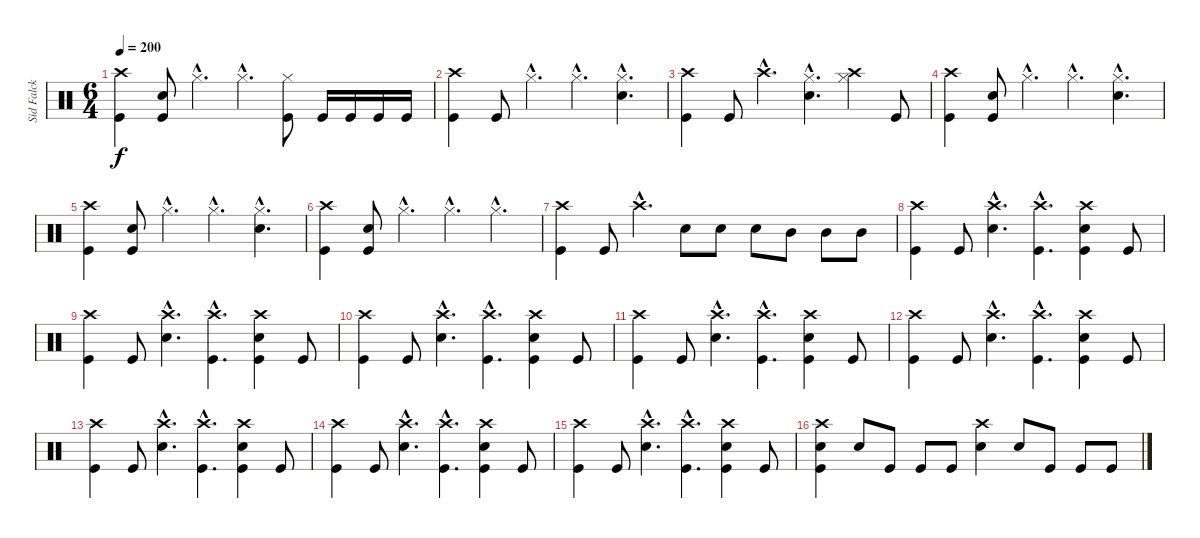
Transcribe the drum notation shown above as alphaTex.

\track ("Sid Falck - drums" "Sid Falck ") {instrument percussion}
\staff {score}
\articulation defaults
\ts (6 4)
\tempo 200
\clef neutral
\ks c
("Crash high (hit)" "Kick (hit)").4{dy f} ("Electric Snare (hit)" "Kick (hit)").8 "Hi-Hat (closed)"{hac}.4{d} "Hi-Hat (closed)"{hac}.4{d} ("Hi-Hat (closed)" "Kick (hit)").8 "Kick (hit)".16 "Kick (hit)".16 "Kick (hit)".16 "Kick (hit)".16 |
("Crash high (hit)" "Kick (hit)").4 "Kick (hit)".8 "Hi-Hat (closed)"{hac}.4{d} "Hi-Hat (closed)"{hac}.4{d} ("Hi-Hat (closed)"{hac} "Electric Snare (hit)"{hac}).4{d} |
("Crash high (hit)" "Kick (hit)").4 "Kick (hit)".8 "Crash high (hit)"{hac}.4{d} ("Hi-Hat (closed)"{hac} "Electric Snare (hit)"{hac}).4{d} ("Crash high (hit)" "Hi-Hat (closed)").4 "Kick (hit)".8 |
("Crash high (hit)" "Kick (hit)").4 ("Electric Snare (hit)" "Kick (hit)").8 "Hi-Hat (closed)"{hac}.4{d} "Hi-Hat (closed)"{hac}.4{d} ("Hi-Hat (closed)"{hac} "Electric Snare (hit)"{hac}).4{d} |
("Crash high (hit)" "Kick (hit)").4 ("Electric Snare (hit)" "Kick (hit)").8 "Hi-Hat (closed)"{hac}.4{d} "Hi-Hat (closed)"{hac}.4{d} ("Hi-Hat (closed)"{hac} "Electric Snare (hit)"{hac}).4{d} |
("Crash high (hit)" "Kick (hit)").4 ("Electric Snare (hit)" "Kick (hit)").8 "Hi-Hat (closed)"{hac}.4{d} "Hi-Hat (closed)"{hac}.4{d} "Hi-Hat (closed)"{hac}.4{d} |
("Crash high (hit)" "Kick (hit)").4 "Kick (hit)".8 "Crash high (hit)"{hac}.4{d} "Electric Snare (hit)".8 "Electric Snare (hit)".8 "Electric Snare (hit)".8 "Mid Tom (hit)".8 "Mid Tom (hit)".8 "Mid Tom (hit)".8 |
("Crash high (hit)" "Kick (hit)").4 "Kick (hit)".8 ("Crash high (hit)"{hac} "Electric Snare (hit)"{hac}).4{d} ("Crash high (hit)"{hac} "Kick (hit)"{hac}).4{d} ("Crash high (hit)" "Electric Snare (hit)" "Kick (hit)").4 "Kick (hit)".8 |
("Crash high (hit)" "Kick (hit)").4 "Kick (hit)".8 ("Crash high (hit)"{hac} "Electric Snare (hit)"{hac}).4{d} ("Crash high (hit)"{hac} "Kick (hit)"{hac}).4{d} ("Crash high (hit)" "Electric Snare (hit)" "Kick (hit)").4 "Kick (hit)".8 |
("Crash high (hit)" "Kick (hit)").4 "Kick (hit)".8 ("Crash high (hit)"{hac} "Electric Snare (hit)"{hac}).4{d} ("Crash high (hit)"{hac} "Kick (hit)"{hac}).4{d} ("Crash high (hit)" "Electric Snare (hit)" "Kick (hit)").4 "Kick (hit)".8 |
("Crash high (hit)" "Kick (hit)").4 "Kick (hit)".8 ("Crash high (hit)"{hac} "Electric Snare (hit)"{hac}).4{d} ("Crash high (hit)"{hac} "Kick (hit)"{hac}).4{d} ("Crash high (hit)" "Electric Snare (hit)" "Kick (hit)").4 "Kick (hit)".8 |
("Crash high (hit)" "Kick (hit)").4 "Kick (hit)".8 ("Crash high (hit)"{hac} "Electric Snare (hit)"{hac}).4{d} ("Crash high (hit)"{hac} "Kick (hit)"{hac}).4{d} ("Crash high (hit)" "Electric Snare (hit)" "Kick (hit)").4 "Kick (hit)".8 |
("Crash high (hit)" "Kick (hit)").4 "Kick (hit)".8 ("Crash high (hit)"{hac} "Electric Snare (hit)"{hac}).4{d} ("Crash high (hit)"{hac} "Kick (hit)"{hac}).4{d} ("Crash high (hit)" "Electric Snare (hit)" "Kick (hit)").4 "Kick (hit)".8 |
("Crash high (hit)" "Kick (hit)").4 "Kick (hit)".8 ("Crash high (hit)"{hac} "Electric Snare (hit)"{hac}).4{d} ("Crash high (hit)"{hac} "Kick (hit)"{hac}).4{d} ("Crash high (hit)" "Electric Snare (hit)" "Kick (hit)").4 "Kick (hit)".8 |
("Crash high (hit)" "Kick (hit)").4 "Kick (hit)".8 ("Crash high (hit)"{hac} "Electric Snare (hit)"{hac}).4{d} ("Crash high (hit)"{hac} "Kick (hit)"{hac}).4{d} ("Crash high (hit)" "Electric Snare (hit)" "Kick (hit)").4 "Kick (hit)".8 |
("Crash high (hit)" "Electric Snare (hit)" "Kick (hit)").4 "Electric Snare (hit)".8 "Kick (hit)".8 "Kick (hit)".8 "Kick (hit)".8 ("Crash high (hit)" "Electric Snare (hit)").4 "Electric Snare (hit)".8 "Kick (hit)".8 "Kick (hit)".8 "Kick (hit)".8
